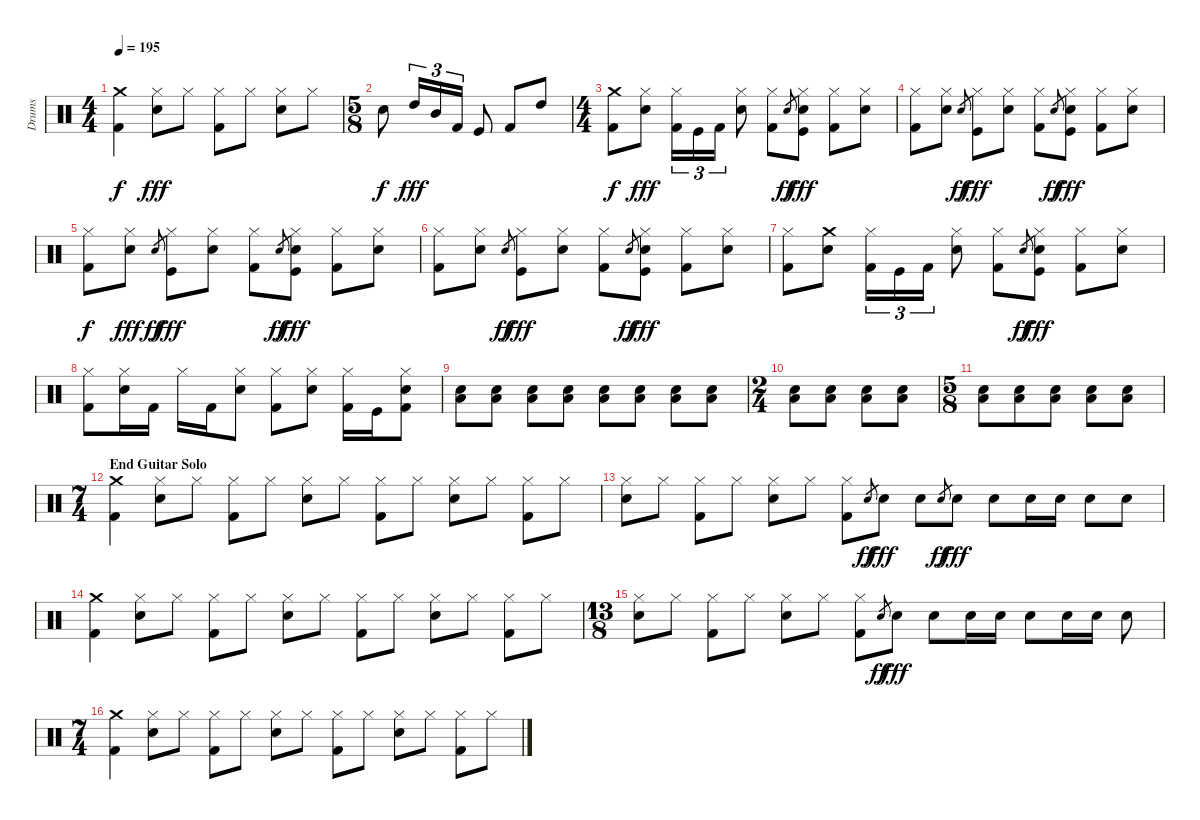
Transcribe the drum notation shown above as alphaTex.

\track ("Drums" "Drums") {instrument percussion}
\staff {score}
\articulation defaults
\ts (4 4)
\tempo 195
\clef neutral
\ks c
("Kick (hit) 2" "Crash medium (hit)").4{dy f} ("Hi-Hat (closed)" "Snare (hit) 2").8{dy fff} "Hi-Hat (closed)".8 ("Hi-Hat (closed)" "Kick (hit) 2").8 "Hi-Hat (closed)".8 ("Snare (hit) 2" "Hi-Hat (closed)").8 "Hi-Hat (closed)".8 |
\ts (5 8)
"Snare (hit) 2".8{dy f} "High Tom (hit)".16{tu (3 2) dy fff} "Mid Tom (hit)".16{tu (3 2)} "Kick (hit) 2".16{tu (3 2)} "Kick (hit)".8 "Kick (hit) 2".8 "High Tom (hit)".8 |
\ts (4 4)
("Crash medium (hit)" "Kick (hit) 2").8{dy f} ("Snare (hit) 2" "Hi-Hat (closed)").8{dy fff} ("Kick (hit) 2" "Hi-Hat (closed)").16{tu (3 2)} "Kick (hit)".16{tu (3 2)} "Kick (hit) 2".16{tu (3 2)} ("Snare (hit) 2" "Hi-Hat (closed)").8 ("Kick (hit) 2" "Hi-Hat (closed)").8 "Snare (hit)".8{gr dy ff} ("Kick (hit)" "Snare (hit) 2" "Hi-Hat (closed)").8{dy fff} ("Kick (hit) 2" "Hi-Hat (closed)").8 ("Snare (hit) 2" "Hi-Hat (closed)").8 |
("Kick (hit) 2" "Hi-Hat (closed)").8 ("Snare (hit) 2" "Hi-Hat (closed)").8 "Snare (hit)".8{gr dy ff} ("Kick (hit)" "Hi-Hat (closed)").8{dy fff} ("Snare (hit) 2" "Hi-Hat (closed)").8 ("Kick (hit) 2" "Hi-Hat (closed)").8 "Snare (hit)".8{gr dy ff} ("Kick (hit)" "Snare (hit) 2" "Hi-Hat (closed)").8{dy fff} ("Kick (hit) 2" "Hi-Hat (closed)").8 ("Snare (hit) 2" "Hi-Hat (closed)").8 |
("Kick (hit) 2" "Hi-Hat (closed)").8{dy f} ("Snare (hit) 2" "Hi-Hat (closed)").8{dy fff} "Snare (hit)".8{gr dy ff} ("Kick (hit)" "Hi-Hat (closed)").8{dy fff} ("Snare (hit) 2" "Hi-Hat (closed)").8 ("Kick (hit) 2" "Hi-Hat (closed)").8 "Snare (hit)".8{gr dy ff} ("Kick (hit)" "Snare (hit) 2" "Hi-Hat (closed)").8{dy fff} ("Kick (hit) 2" "Hi-Hat (closed)").8 ("Snare (hit) 2" "Hi-Hat (closed)").8 |
("Kick (hit) 2" "Hi-Hat (closed)").8 ("Snare (hit) 2" "Hi-Hat (closed)").8 "Snare (hit)".8{gr dy ff} ("Kick (hit)" "Hi-Hat (closed)").8{dy fff} ("Snare (hit) 2" "Hi-Hat (closed)").8 ("Kick (hit) 2" "Hi-Hat (closed)").8 "Snare (hit)".8{gr dy ff} ("Kick (hit)" "Snare (hit) 2" "Hi-Hat (closed)").8{dy fff} ("Kick (hit) 2" "Hi-Hat (closed)").8 ("Snare (hit) 2" "Hi-Hat (closed)").8 |
("Hi-Hat (closed)" "Kick (hit) 2").8 ("Crash medium (hit)" "Snare (hit) 2").8 ("Kick (hit) 2" "Hi-Hat (closed)").16{tu (3 2)} "Kick (hit)".16{tu (3 2)} "Kick (hit) 2".16{tu (3 2)} ("Snare (hit) 2" "Hi-Hat (closed)").8 ("Kick (hit) 2" "Hi-Hat (closed)").8 "Snare (hit)".8{gr dy ff} ("Kick (hit)" "Snare (hit) 2" "Hi-Hat (closed)").8{dy fff} ("Kick (hit) 2" "Hi-Hat (closed)").8 ("Snare (hit) 2" "Hi-Hat (closed)").8 |
("Hi-Hat (closed)" "Kick (hit) 2").8 ("Snare (hit) 2" "Hi-Hat (closed)").16 "Kick (hit) 2".16 "Hi-Hat (closed)".16 "Kick (hit) 2".16 ("Snare (hit) 2" "Hi-Hat (closed)").8 ("Hi-Hat (closed)" "Kick (hit) 2").8 ("Snare (hit) 2" "Hi-Hat (closed)").8 ("Hi-Hat (closed)" "Kick (hit) 2").16 "Kick (hit)".16 ("Kick (hit) 2" "Snare (hit) 2" "Hi-Hat (closed)").8 |
("Snare (hit) 2" "Low Tom (hit)").8 ("Snare (hit) 2" "Low Tom (hit)").8 ("Snare (hit) 2" "Low Tom (hit)").8 ("Snare (hit) 2" "Low Tom (hit)").8 ("Snare (hit) 2" "Low Tom (hit)").8 ("Snare (hit) 2" "Low Tom (hit)").8 ("Snare (hit) 2" "Low Tom (hit)").8 ("Snare (hit) 2" "Low Tom (hit)").8 |
\ts (2 4)
("Snare (hit) 2" "Low Tom (hit)").8 ("Snare (hit) 2" "Low Tom (hit)").8 ("Snare (hit) 2" "Low Tom (hit)").8 ("Snare (hit) 2" "Low Tom (hit)").8 |
\ts (5 8)
("Snare (hit) 2" "Low Tom (hit)").8 ("Snare (hit) 2" "Low Tom (hit)").8 ("Snare (hit) 2" "Low Tom (hit)").8 ("Snare (hit) 2" "Low Tom (hit)").8 ("Snare (hit) 2" "Low Tom (hit)").8 |
\ts (7 4)
\section ("" "End Guitar Solo")
("Kick (hit) 2" "Crash medium (hit)").4 ("Hi-Hat (closed)" "Snare (hit) 2").8 "Hi-Hat (closed)".8 ("Hi-Hat (closed)" "Kick (hit) 2").8 "Hi-Hat (closed)".8 ("Snare (hit) 2" "Hi-Hat (closed)").8 "Hi-Hat (closed)".8 ("Hi-Hat (closed)" "Kick (hit) 2").8 "Hi-Hat (closed)".8 ("Snare (hit) 2" "Hi-Hat (closed)").8 "Hi-Hat (closed)".8 ("Hi-Hat (closed)" "Kick (hit) 2").8 "Hi-Hat (closed)".8 |
("Hi-Hat (closed)" "Snare (hit) 2").8 "Hi-Hat (closed)".8 ("Hi-Hat (closed)" "Kick (hit) 2").8 "Hi-Hat (closed)".8 ("Hi-Hat (closed)" "Snare (hit) 2").8 "Hi-Hat (closed)".8 ("Hi-Hat (closed)" "Kick (hit) 2").8 "Snare (hit)".8{gr dy ff} "Snare (hit) 2".8{dy fff} "Snare (hit) 2".8 "Snare (hit)".8{gr dy ff} "Snare (hit) 2".8{dy fff} "Snare (hit) 2".8 "Snare (hit) 2".16 "Snare (hit) 2".16 "Snare (hit) 2".8 "Snare (hit) 2".8 |
("Kick (hit) 2" "Crash medium (hit)").4 ("Hi-Hat (closed)" "Snare (hit) 2").8 "Hi-Hat (closed)".8 ("Hi-Hat (closed)" "Kick (hit) 2").8 "Hi-Hat (closed)".8 ("Snare (hit) 2" "Hi-Hat (closed)").8 "Hi-Hat (closed)".8 ("Hi-Hat (closed)" "Kick (hit) 2").8 "Hi-Hat (closed)".8 ("Snare (hit) 2" "Hi-Hat (closed)").8 "Hi-Hat (closed)".8 ("Hi-Hat (closed)" "Kick (hit) 2").8 "Hi-Hat (closed)".8 |
\ts (13 8)
("Hi-Hat (closed)" "Snare (hit) 2").8 "Hi-Hat (closed)".8 ("Hi-Hat (closed)" "Kick (hit) 2").8 "Hi-Hat (closed)".8 ("Hi-Hat (closed)" "Snare (hit) 2").8 "Hi-Hat (closed)".8 ("Hi-Hat (closed)" "Kick (hit) 2").8 "Snare (hit)".8{gr dy ff} "Snare (hit) 2".8{dy fff} "Snare (hit) 2".8 "Snare (hit) 2".16 "Snare (hit) 2".16 "Snare (hit) 2".8 "Snare (hit) 2".16 "Snare (hit) 2".16 "Snare (hit) 2".8 |
\ts (7 4)
("Kick (hit) 2" "Crash medium (hit)").4 ("Hi-Hat (closed)" "Snare (hit) 2").8 "Hi-Hat (closed)".8 ("Hi-Hat (closed)" "Kick (hit) 2").8 "Hi-Hat (closed)".8 ("Snare (hit) 2" "Hi-Hat (closed)").8 "Hi-Hat (closed)".8 ("Hi-Hat (closed)" "Kick (hit) 2").8 "Hi-Hat (closed)".8 ("Snare (hit) 2" "Hi-Hat (closed)").8 "Hi-Hat (closed)".8 ("Hi-Hat (closed)" "Kick (hit) 2").8 "Hi-Hat (closed)".8
